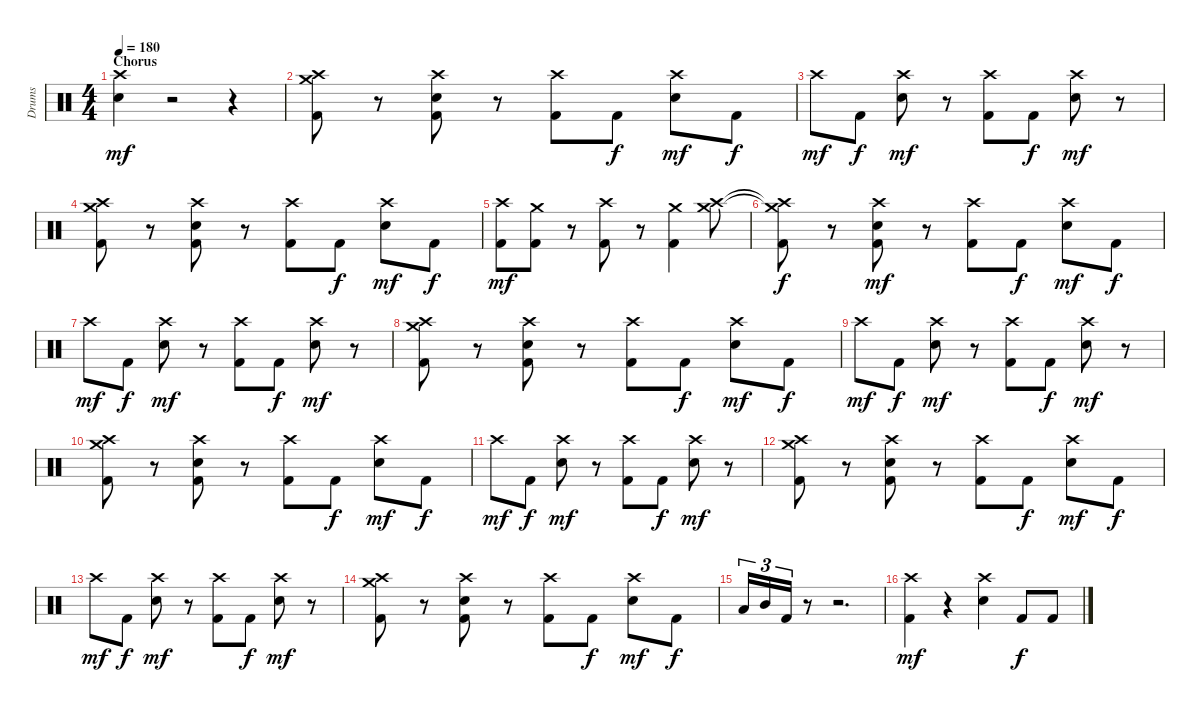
\track ("Drums" "Drums") {instrument percussion}
\staff {score}
\articulation defaults
\ts (4 4)
\section ("" "Chorus")
\tempo 180
\clef neutral
\ks c
("Crash high (hit)" "Electric Snare (hit)").4{dy mf} r.2 r.4 |
("Crash high (hit)" "Crash medium (hit)" "Kick (hit) 2").8 r.8 ("Crash high (hit)" "Electric Snare (hit)" "Kick (hit) 2").8 r.8 ("Crash high (hit)" "Kick (hit) 2").8 "Kick (hit) 2".8{dy f} ("Crash high (hit)" "Electric Snare (hit)").8{dy mf} "Kick (hit) 2".8{dy f} |
"Crash high (hit)".8{dy mf} "Kick (hit) 2".8{dy f} ("Crash high (hit)" "Electric Snare (hit)").8{dy mf} r.8 ("Crash high (hit)" "Kick (hit) 2").8 "Kick (hit) 2".8{dy f} ("Crash high (hit)" "Electric Snare (hit)").8{dy mf} r.8 |
("Crash high (hit)" "Crash medium (hit)" "Kick (hit) 2").8 r.8 ("Crash high (hit)" "Electric Snare (hit)" "Kick (hit) 2").8 r.8 ("Crash high (hit)" "Kick (hit) 2").8 "Kick (hit) 2".8{dy f} ("Crash high (hit)" "Electric Snare (hit)").8{dy mf} "Kick (hit) 2".8{dy f} |
("Crash high (hit)" "Kick (hit) 2").8{dy mf} ("Crash medium (hit)" "Kick (hit) 2").8 r.8 ("Crash high (hit)" "Kick (hit) 2").8 r.8 ("Crash medium (hit)" "Kick (hit) 2").4 ("Crash high (hit)" "Crash medium (hit)").8 |
("Crash high (hit)"{t} "Crash medium (hit)"{t} "Kick (hit) 2").8{dy f} r.8 ("Crash high (hit)" "Electric Snare (hit)" "Kick (hit) 2").8{dy mf} r.8 ("Crash high (hit)" "Kick (hit) 2").8 "Kick (hit) 2".8{dy f} ("Crash high (hit)" "Electric Snare (hit)").8{dy mf} "Kick (hit) 2".8{dy f} |
"Crash high (hit)".8{dy mf} "Kick (hit) 2".8{dy f} ("Crash high (hit)" "Electric Snare (hit)").8{dy mf} r.8 ("Crash high (hit)" "Kick (hit) 2").8 "Kick (hit) 2".8{dy f} ("Crash high (hit)" "Electric Snare (hit)").8{dy mf} r.8 |
("Crash high (hit)" "Crash medium (hit)" "Kick (hit) 2").8 r.8 ("Crash high (hit)" "Electric Snare (hit)" "Kick (hit) 2").8 r.8 ("Crash high (hit)" "Kick (hit) 2").8 "Kick (hit) 2".8{dy f} ("Crash high (hit)" "Electric Snare (hit)").8{dy mf} "Kick (hit) 2".8{dy f} |
"Crash high (hit)".8{dy mf} "Kick (hit) 2".8{dy f} ("Crash high (hit)" "Electric Snare (hit)").8{dy mf} r.8 ("Crash high (hit)" "Kick (hit) 2").8 "Kick (hit) 2".8{dy f} ("Crash high (hit)" "Electric Snare (hit)").8{dy mf} r.8 |
("Crash high (hit)" "Crash medium (hit)" "Kick (hit) 2").8 r.8 ("Crash high (hit)" "Electric Snare (hit)" "Kick (hit) 2").8 r.8 ("Crash high (hit)" "Kick (hit) 2").8 "Kick (hit) 2".8{dy f} ("Crash high (hit)" "Electric Snare (hit)").8{dy mf} "Kick (hit) 2".8{dy f} |
"Crash high (hit)".8{dy mf} "Kick (hit) 2".8{dy f} ("Crash high (hit)" "Electric Snare (hit)").8{dy mf} r.8 ("Crash high (hit)" "Kick (hit) 2").8 "Kick (hit) 2".8{dy f} ("Crash high (hit)" "Electric Snare (hit)").8{dy mf} r.8 |
("Crash high (hit)" "Crash medium (hit)" "Kick (hit) 2").8 r.8 ("Crash high (hit)" "Electric Snare (hit)" "Kick (hit) 2").8 r.8 ("Crash high (hit)" "Kick (hit) 2").8 "Kick (hit) 2".8{dy f} ("Crash high (hit)" "Electric Snare (hit)").8{dy mf} "Kick (hit) 2".8{dy f} |
"Crash high (hit)".8{dy mf} "Kick (hit) 2".8{dy f} ("Crash high (hit)" "Electric Snare (hit)").8{dy mf} r.8 ("Crash high (hit)" "Kick (hit) 2").8 "Kick (hit) 2".8{dy f} ("Crash high (hit)" "Electric Snare (hit)").8{dy mf} r.8 |
("Crash high (hit)" "Crash medium (hit)" "Kick (hit) 2").8 r.8 ("Crash high (hit)" "Electric Snare (hit)" "Kick (hit) 2").8 r.8 ("Crash high (hit)" "Kick (hit) 2").8 "Kick (hit) 2".8{dy f} ("Crash high (hit)" "Electric Snare (hit)").8{dy mf} "Kick (hit) 2".8{dy f} |
"Low Tom (hit)".16{tu (3 2)} "Mid Tom (hit)".16{tu (3 2)} "Kick (hit) 2".16{tu (3 2)} r.8 r.2{d} |
("Crash high (hit)" "Kick (hit) 2").4{dy mf} r.4 ("Crash high (hit)" "Electric Snare (hit)").4 "Kick (hit) 2".8{dy f} "Kick (hit) 2".8
